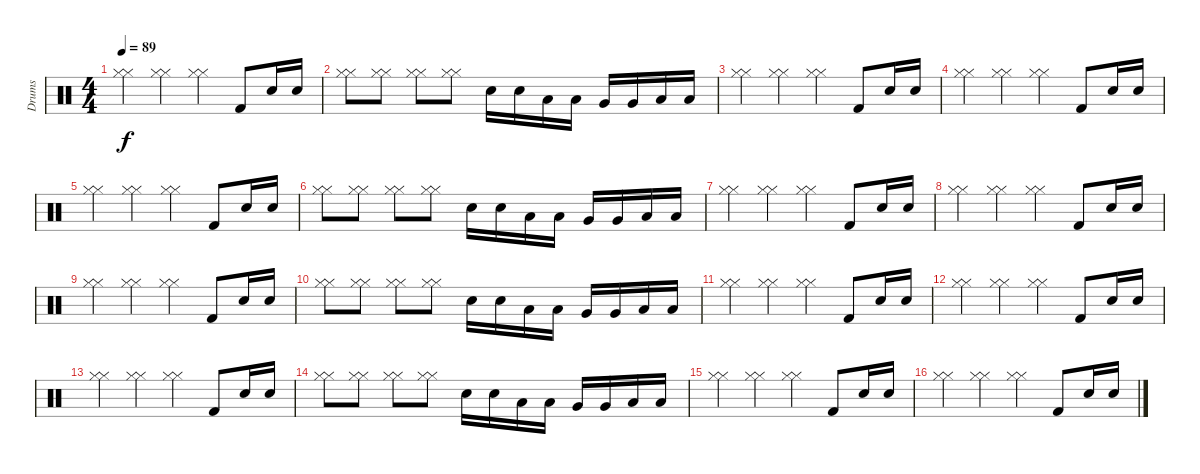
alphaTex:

\track ("Drums" "Drums") {instrument percussion}
\staff {score}
\articulation defaults
\ts (4 4)
\tempo 89
\clef neutral
\ks c
("Hi-Hat (closed)" "Hi-Hat (closed)").4{dy f} ("Hi-Hat (closed)" "Hi-Hat (closed)").4 ("Hi-Hat (closed)" "Hi-Hat (closed)").4 "Kick (hit) 2".8 "Electric Snare (hit)".16 "Electric Snare (hit)".16 |
("Hi-Hat (closed)" "Hi-Hat (closed)").8 ("Hi-Hat (closed)" "Hi-Hat (closed)").8 ("Hi-Hat (closed)" "Hi-Hat (closed)").8 ("Hi-Hat (closed)" "Hi-Hat (closed)").8 "Electric Snare (hit)".16 "Electric Snare (hit)".16 "Low Tom (hit)".16 "Low Tom (hit)".16 "Very Low Tom (hit)".16 "Very Low Tom (hit)".16 "Low Floor Tom (hit)".16 "Low Floor Tom (hit)".16 |
("Hi-Hat (closed)" "Hi-Hat (closed)").4 ("Hi-Hat (closed)" "Hi-Hat (closed)").4 ("Hi-Hat (closed)" "Hi-Hat (closed)").4 "Kick (hit) 2".8 "Electric Snare (hit)".16 "Electric Snare (hit)".16 |
("Hi-Hat (closed)" "Hi-Hat (closed)").4 ("Hi-Hat (closed)" "Hi-Hat (closed)").4 ("Hi-Hat (closed)" "Hi-Hat (closed)").4 "Kick (hit) 2".8 "Electric Snare (hit)".16 "Electric Snare (hit)".16 |
("Hi-Hat (closed)" "Hi-Hat (closed)").4 ("Hi-Hat (closed)" "Hi-Hat (closed)").4 ("Hi-Hat (closed)" "Hi-Hat (closed)").4 "Kick (hit) 2".8 "Electric Snare (hit)".16 "Electric Snare (hit)".16 |
("Hi-Hat (closed)" "Hi-Hat (closed)").8 ("Hi-Hat (closed)" "Hi-Hat (closed)").8 ("Hi-Hat (closed)" "Hi-Hat (closed)").8 ("Hi-Hat (closed)" "Hi-Hat (closed)").8 "Electric Snare (hit)".16 "Electric Snare (hit)".16 "Low Tom (hit)".16 "Low Tom (hit)".16 "Very Low Tom (hit)".16 "Very Low Tom (hit)".16 "Low Floor Tom (hit)".16 "Low Floor Tom (hit)".16 |
("Hi-Hat (closed)" "Hi-Hat (closed)").4 ("Hi-Hat (closed)" "Hi-Hat (closed)").4 ("Hi-Hat (closed)" "Hi-Hat (closed)").4 "Kick (hit) 2".8 "Electric Snare (hit)".16 "Electric Snare (hit)".16 |
("Hi-Hat (closed)" "Hi-Hat (closed)").4 ("Hi-Hat (closed)" "Hi-Hat (closed)").4 ("Hi-Hat (closed)" "Hi-Hat (closed)").4 "Kick (hit) 2".8 "Electric Snare (hit)".16 "Electric Snare (hit)".16 |
("Hi-Hat (closed)" "Hi-Hat (closed)").4 ("Hi-Hat (closed)" "Hi-Hat (closed)").4 ("Hi-Hat (closed)" "Hi-Hat (closed)").4 "Kick (hit) 2".8 "Electric Snare (hit)".16 "Electric Snare (hit)".16 |
("Hi-Hat (closed)" "Hi-Hat (closed)").8 ("Hi-Hat (closed)" "Hi-Hat (closed)").8 ("Hi-Hat (closed)" "Hi-Hat (closed)").8 ("Hi-Hat (closed)" "Hi-Hat (closed)").8 "Electric Snare (hit)".16 "Electric Snare (hit)".16 "Low Tom (hit)".16 "Low Tom (hit)".16 "Very Low Tom (hit)".16 "Very Low Tom (hit)".16 "Low Floor Tom (hit)".16 "Low Floor Tom (hit)".16 |
("Hi-Hat (closed)" "Hi-Hat (closed)").4 ("Hi-Hat (closed)" "Hi-Hat (closed)").4 ("Hi-Hat (closed)" "Hi-Hat (closed)").4 "Kick (hit) 2".8 "Electric Snare (hit)".16 "Electric Snare (hit)".16 |
("Hi-Hat (closed)" "Hi-Hat (closed)").4 ("Hi-Hat (closed)" "Hi-Hat (closed)").4 ("Hi-Hat (closed)" "Hi-Hat (closed)").4 "Kick (hit) 2".8 "Electric Snare (hit)".16 "Electric Snare (hit)".16 |
("Hi-Hat (closed)" "Hi-Hat (closed)").4 ("Hi-Hat (closed)" "Hi-Hat (closed)").4 ("Hi-Hat (closed)" "Hi-Hat (closed)").4 "Kick (hit) 2".8 "Electric Snare (hit)".16 "Electric Snare (hit)".16 |
("Hi-Hat (closed)" "Hi-Hat (closed)").8 ("Hi-Hat (closed)" "Hi-Hat (closed)").8 ("Hi-Hat (closed)" "Hi-Hat (closed)").8 ("Hi-Hat (closed)" "Hi-Hat (closed)").8 "Electric Snare (hit)".16 "Electric Snare (hit)".16 "Low Tom (hit)".16 "Low Tom (hit)".16 "Very Low Tom (hit)".16 "Very Low Tom (hit)".16 "Low Floor Tom (hit)".16 "Low Floor Tom (hit)".16 |
("Hi-Hat (closed)" "Hi-Hat (closed)").4 ("Hi-Hat (closed)" "Hi-Hat (closed)").4 ("Hi-Hat (closed)" "Hi-Hat (closed)").4 "Kick (hit) 2".8 "Electric Snare (hit)".16 "Electric Snare (hit)".16 |
("Hi-Hat (closed)" "Hi-Hat (closed)").4 ("Hi-Hat (closed)" "Hi-Hat (closed)").4 ("Hi-Hat (closed)" "Hi-Hat (closed)").4 "Kick (hit) 2".8 "Electric Snare (hit)".16 "Electric Snare (hit)".16
